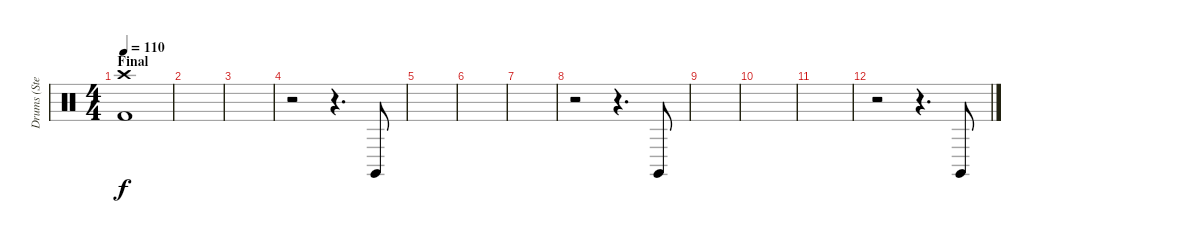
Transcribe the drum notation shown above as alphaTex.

\track ("Drums (Stephen Perkins)" "Drums (Ste") {instrument percussion}
\staff {score}
\articulation defaults
\ts (4 4)
\section ("" "Final")
\tempo 110
\clef neutral
\ks c
("Crash high (hit)" "Kick (hit) 2").1{dy f} |
|
|
r.2 r.4{d} "Claves (hit)".8 |
|
|
|
r.2 r.4{d} "Claves (hit)".8 |
|
|
|
r.2 r.4{d} "Claves (hit)".8
